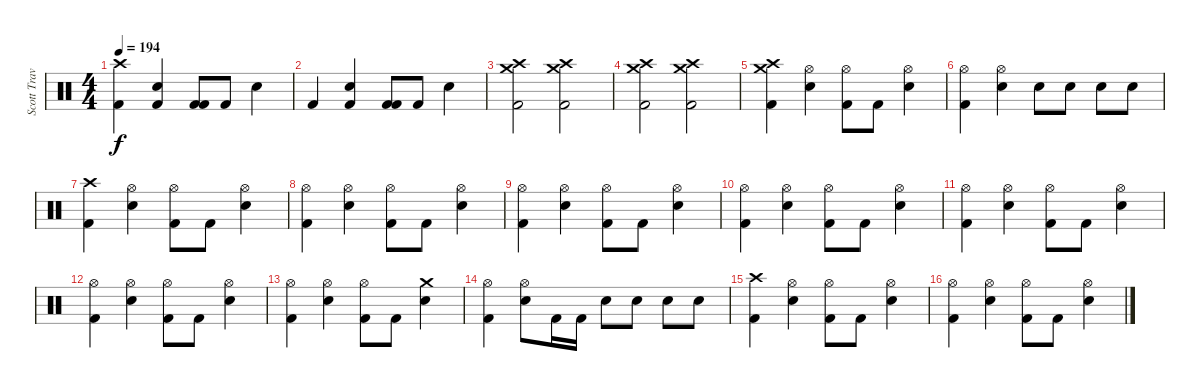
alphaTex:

\track ("Scott Travis" "Scott Trav") {instrument percussion}
\staff {score}
\articulation defaults
\ts (4 4)
\tempo 194
\clef neutral
\ks c
("Kick (hit) 2" "Crash high (hit)").4{dy f} ("Kick (hit) 2" "Snare (hit) 2").4 ("Kick (hit) 2" "Kick (hit) 2").8 "Kick (hit) 2".8 "Snare (hit) 2".4 |
"Kick (hit) 2".4 ("Kick (hit) 2" "Snare (hit) 2").4 ("Kick (hit) 2" "Kick (hit) 2").8 "Kick (hit) 2".8 "Snare (hit) 2".4 |
("Crash high (hit)" "Crash medium (hit)" "Kick (hit) 2").2 ("Crash medium (hit)" "Crash high (hit)" "Kick (hit) 2").2 |
("Crash high (hit)" "Crash medium (hit)" "Kick (hit) 2").2 ("Crash medium (hit)" "Crash high (hit)" "Kick (hit) 2").2 |
("Kick (hit) 2" "Crash medium (hit)" "Crash high (hit)").4 ("Hi-Hat (open)" "Snare (hit) 2").4 ("Hi-Hat (open)" "Kick (hit) 2").8 "Kick (hit) 2".8 ("Snare (hit) 2" "Hi-Hat (open)").4 |
("Kick (hit) 2" "Hi-Hat (open)").4 ("Hi-Hat (open)" "Snare (hit) 2").4 "Snare (hit) 2".8 "Snare (hit) 2".8 "Snare (hit) 2".8 "Snare (hit) 2".8 |
("Kick (hit) 2" "Crash high (hit)").4 ("Hi-Hat (open)" "Snare (hit) 2").4 ("Hi-Hat (open)" "Kick (hit) 2").8 "Kick (hit) 2".8 ("Snare (hit) 2" "Hi-Hat (open)").4 |
("Kick (hit) 2" "Hi-Hat (open)").4 ("Hi-Hat (open)" "Snare (hit) 2").4 ("Hi-Hat (open)" "Kick (hit) 2").8 "Kick (hit) 2".8 ("Snare (hit) 2" "Hi-Hat (open)").4 |
("Kick (hit) 2" "Hi-Hat (open)").4 ("Hi-Hat (open)" "Snare (hit) 2").4 ("Hi-Hat (open)" "Kick (hit) 2").8 "Kick (hit) 2".8 ("Snare (hit) 2" "Hi-Hat (open)").4 |
("Kick (hit) 2" "Hi-Hat (open)").4 ("Hi-Hat (open)" "Snare (hit) 2").4 ("Hi-Hat (open)" "Kick (hit) 2").8 "Kick (hit) 2".8 ("Snare (hit) 2" "Hi-Hat (open)").4 |
("Kick (hit) 2" "Hi-Hat (open)").4 ("Hi-Hat (open)" "Snare (hit) 2").4 ("Hi-Hat (open)" "Kick (hit) 2").8 "Kick (hit) 2".8 ("Snare (hit) 2" "Hi-Hat (open)").4 |
("Kick (hit) 2" "Hi-Hat (open)").4 ("Hi-Hat (open)" "Snare (hit) 2").4 ("Hi-Hat (open)" "Kick (hit) 2").8 "Kick (hit) 2".8 ("Snare (hit) 2" "Hi-Hat (open)").4 |
("Kick (hit) 2" "Hi-Hat (open)").4 ("Hi-Hat (open)" "Snare (hit) 2").4 ("Hi-Hat (open)" "Kick (hit) 2").8 "Kick (hit) 2".8 ("Snare (hit) 2" "Crash medium (hit)").4 |
("Kick (hit) 2" "Hi-Hat (open)").4 ("Hi-Hat (open)" "Snare (hit) 2").8 "Kick (hit) 2".16 "Kick (hit) 2".16 "Snare (hit) 2".8 "Snare (hit) 2".8 "Snare (hit) 2".8 "Snare (hit) 2".8 |
("Kick (hit) 2" "Crash high (hit)").4 ("Hi-Hat (open)" "Snare (hit) 2").4 ("Hi-Hat (open)" "Kick (hit) 2").8 "Kick (hit) 2".8 ("Snare (hit) 2" "Hi-Hat (open)").4 |
("Kick (hit) 2" "Hi-Hat (open)").4 ("Hi-Hat (open)" "Snare (hit) 2").4 ("Hi-Hat (open)" "Kick (hit) 2").8 "Kick (hit) 2".8 ("Snare (hit) 2" "Hi-Hat (open)").4
